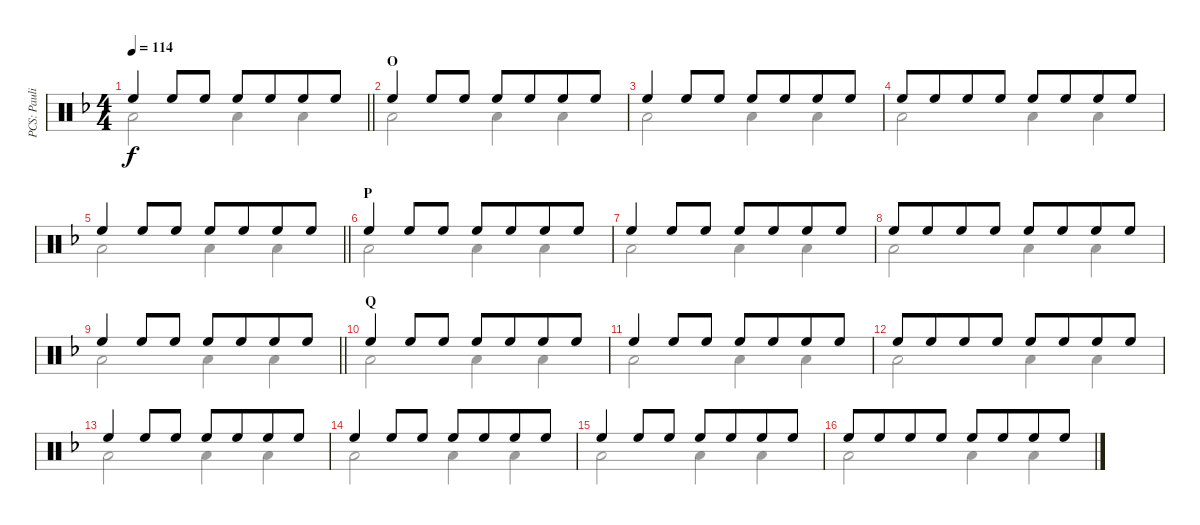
\track ("PCS: Paulinho da Costa" "PCS: Pauli") {instrument percussion}
\staff {score}
\articulation defaults
\voice
\ts (4 4)
\tempo 114
\clef neutral
\barLineRight lightlight
\ks f "High Floor Tom (hit)".4{dy f} "High Floor Tom (hit)".8 "High Floor Tom (hit)".8 "High Floor Tom (hit)".8 "High Floor Tom (hit)".8{beam merge} "High Floor Tom (hit)".8 "High Floor Tom (hit)".8
|
\section ("" "O")
"High Floor Tom (hit)".4 "High Floor Tom (hit)".8 "High Floor Tom (hit)".8 "High Floor Tom (hit)".8 "High Floor Tom (hit)".8{beam merge} "High Floor Tom (hit)".8 "High Floor Tom (hit)".8 |
"High Floor Tom (hit)".4 "High Floor Tom (hit)".8 "High Floor Tom (hit)".8 "High Floor Tom (hit)".8 "High Floor Tom (hit)".8{beam merge} "High Floor Tom (hit)".8 "High Floor Tom (hit)".8 |
"High Floor Tom (hit)".8 "High Floor Tom (hit)".8{beam merge} "High Floor Tom (hit)".8 "High Floor Tom (hit)".8 "High Floor Tom (hit)".8{beam merge} "High Floor Tom (hit)".8{beam merge} "High Floor Tom (hit)".8 "High Floor Tom (hit)".8 |
\barLineRight lightlight "High Floor Tom (hit)".4 "High Floor Tom (hit)".8 "High Floor Tom (hit)".8 "High Floor Tom (hit)".8 "High Floor Tom (hit)".8{beam merge} "High Floor Tom (hit)".8 "High Floor Tom (hit)".8
|
\section ("" "P")
"High Floor Tom (hit)".4 "High Floor Tom (hit)".8 "High Floor Tom (hit)".8 "High Floor Tom (hit)".8 "High Floor Tom (hit)".8{beam merge} "High Floor Tom (hit)".8 "High Floor Tom (hit)".8 |
"High Floor Tom (hit)".4 "High Floor Tom (hit)".8 "High Floor Tom (hit)".8 "High Floor Tom (hit)".8 "High Floor Tom (hit)".8{beam merge} "High Floor Tom (hit)".8 "High Floor Tom (hit)".8 |
"High Floor Tom (hit)".8 "High Floor Tom (hit)".8{beam merge} "High Floor Tom (hit)".8 "High Floor Tom (hit)".8 "High Floor Tom (hit)".8{beam merge} "High Floor Tom (hit)".8{beam merge} "High Floor Tom (hit)".8 "High Floor Tom (hit)".8 |
\barLineRight lightlight "High Floor Tom (hit)".4 "High Floor Tom (hit)".8 "High Floor Tom (hit)".8 "High Floor Tom (hit)".8 "High Floor Tom (hit)".8{beam merge} "High Floor Tom (hit)".8 "High Floor Tom (hit)".8
|
\section ("" "Q")
"High Floor Tom (hit)".4 "High Floor Tom (hit)".8 "High Floor Tom (hit)".8 "High Floor Tom (hit)".8 "High Floor Tom (hit)".8{beam merge} "High Floor Tom (hit)".8 "High Floor Tom (hit)".8 |
"High Floor Tom (hit)".4 "High Floor Tom (hit)".8 "High Floor Tom (hit)".8 "High Floor Tom (hit)".8 "High Floor Tom (hit)".8{beam merge} "High Floor Tom (hit)".8 "High Floor Tom (hit)".8 |
"High Floor Tom (hit)".8 "High Floor Tom (hit)".8{beam merge} "High Floor Tom (hit)".8 "High Floor Tom (hit)".8 "High Floor Tom (hit)".8{beam merge} "High Floor Tom (hit)".8{beam merge} "High Floor Tom (hit)".8 "High Floor Tom (hit)".8 |
"High Floor Tom (hit)".4 "High Floor Tom (hit)".8 "High Floor Tom (hit)".8 "High Floor Tom (hit)".8 "High Floor Tom (hit)".8{beam merge} "High Floor Tom (hit)".8 "High Floor Tom (hit)".8 |
"High Floor Tom (hit)".4 "High Floor Tom (hit)".8 "High Floor Tom (hit)".8 "High Floor Tom (hit)".8 "High Floor Tom (hit)".8{beam merge} "High Floor Tom (hit)".8 "High Floor Tom (hit)".8 |
"High Floor Tom (hit)".4 "High Floor Tom (hit)".8 "High Floor Tom (hit)".8 "High Floor Tom (hit)".8 "High Floor Tom (hit)".8{beam merge} "High Floor Tom (hit)".8 "High Floor Tom (hit)".8 |
"High Floor Tom (hit)".8 "High Floor Tom (hit)".8{beam merge} "High Floor Tom (hit)".8 "High Floor Tom (hit)".8 "High Floor Tom (hit)".8{beam merge} "High Floor Tom (hit)".8{beam merge} "High Floor Tom (hit)".8 "High Floor Tom (hit)".8
\voice
\clef neutral
\ottava regular
\simile none
\barLineRight lightlight
\ks f "Low Floor Tom (hit)".2{dy f} "Low Floor Tom (hit)".4 "Low Floor Tom (hit)".4
|
"Low Floor Tom (hit)".2 "Low Floor Tom (hit)".4 "Low Floor Tom (hit)".4 |
"Low Floor Tom (hit)".2 "Low Floor Tom (hit)".4 "Low Floor Tom (hit)".4 |
"Low Floor Tom (hit)".2 "Low Floor Tom (hit)".4 "Low Floor Tom (hit)".4 |
\barLineRight lightlight "Low Floor Tom (hit)".2 "Low Floor Tom (hit)".4 "Low Floor Tom (hit)".4
|
"Low Floor Tom (hit)".2 "Low Floor Tom (hit)".4 "Low Floor Tom (hit)".4 |
"Low Floor Tom (hit)".2 "Low Floor Tom (hit)".4 "Low Floor Tom (hit)".4 |
"Low Floor Tom (hit)".2 "Low Floor Tom (hit)".4 "Low Floor Tom (hit)".4 |
\barLineRight lightlight "Low Floor Tom (hit)".2 "Low Floor Tom (hit)".4 "Low Floor Tom (hit)".4
|
"Low Floor Tom (hit)".2 "Low Floor Tom (hit)".4 "Low Floor Tom (hit)".4 |
"Low Floor Tom (hit)".2 "Low Floor Tom (hit)".4 "Low Floor Tom (hit)".4 |
"Low Floor Tom (hit)".2 "Low Floor Tom (hit)".4 "Low Floor Tom (hit)".4 |
"Low Floor Tom (hit)".2 "Low Floor Tom (hit)".4 "Low Floor Tom (hit)".4 |
"Low Floor Tom (hit)".2 "Low Floor Tom (hit)".4 "Low Floor Tom (hit)".4 |
"Low Floor Tom (hit)".2 "Low Floor Tom (hit)".4 "Low Floor Tom (hit)".4 |
"Low Floor Tom (hit)".2 "Low Floor Tom (hit)".4 "Low Floor Tom (hit)".4
